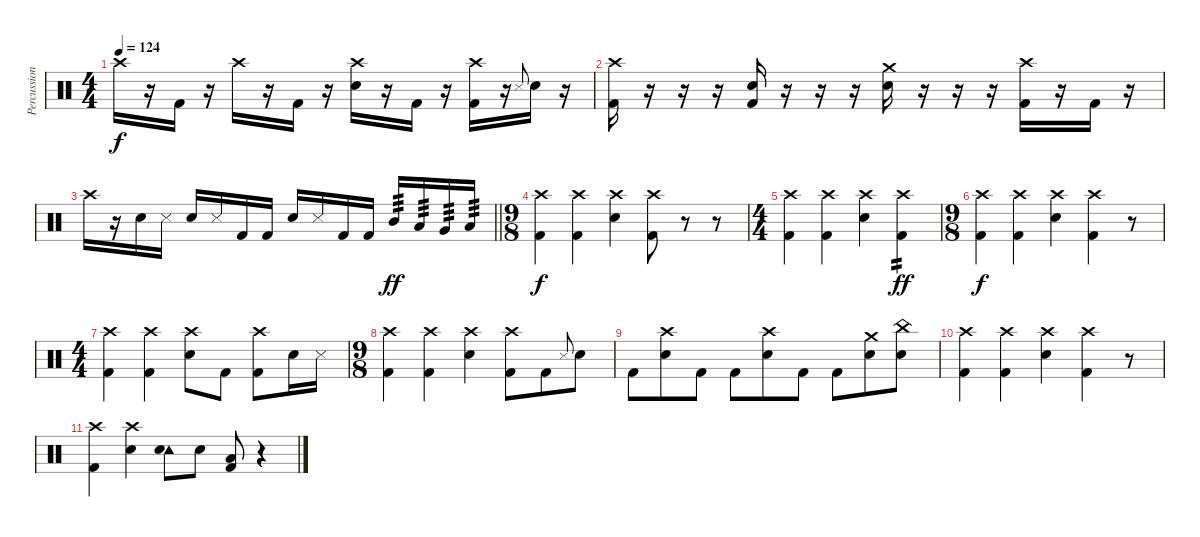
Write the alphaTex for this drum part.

\track ("Percussion" "Percussion") {instrument percussion}
\staff {score}
\articulation defaults
\ts (4 4)
\tempo 124
\clef neutral
\ks c "Crash high (hit)".16{dy f}
r.16 "Kick (hit) 2".16 r.16 "Crash high (hit)".16 r.16 "Kick (hit) 2".16 r.16 ("Crash high (hit)" "Snare (hit) 2").16 r.16 "Kick (hit) 2".16 r.16 ("Crash high (hit)" "Kick (hit) 2").16 r.16 "Metronome (hit)".8{gr onbeat} "Snare (hit) 2".16 r.16 |
("Crash high (hit)" "Kick (hit) 2").16 r.16 r.16 r.16 ("Snare (hit)" "Kick (hit) 2").16 r.16 r.16 r.16 ("Crash medium (hit)" "Snare (hit) 2").16 r.16 r.16 r.16 ("Crash high (hit)" "Kick (hit) 2").16 r.16 "Kick (hit) 2".16 r.16 |
\barLineRight lightlight "Crash high (hit)".16
r.16 "Snare (hit) 2".16 "Metronome (hit)".16 "Snare (hit) 2".16 "Metronome (hit)".16 "Kick (hit) 2".16 "Kick (hit) 2".16 "Snare (hit) 2".16 "Metronome (hit)".16 "Kick (hit) 2".16 "Kick (hit) 2".16 "Mid Tom (hit)".16{tp 3 dy ff} "Low Tom (hit)".16{tp 3} "Very Low Tom (hit)".16{tp 3} "Low Floor Tom (hit)".16{tp 3} |
\ts (9 8)
("Crash high (hit)" "Kick (hit) 2").4{dy f} ("Crash high (hit)" "Kick (hit) 2").4 ("Crash high (hit)" "Snare (hit) 2").4 ("Crash high (hit)" "Kick (hit) 2").8 r.8 r.8 |
\ts (4 4)
("Crash high (hit)" "Kick (hit) 2").4 ("Crash high (hit)" "Kick (hit) 2").4 ("Crash high (hit)" "Snare (hit) 2").4 ("Crash high (hit)" "Kick (hit) 2").4{tp 2 dy ff} |
\ts (9 8)
("Crash high (hit)" "Kick (hit) 2").4{dy f} ("Crash high (hit)" "Kick (hit) 2").4 ("Crash high (hit)" "Snare (hit) 2").4 ("Crash high (hit)" "Kick (hit) 2").4 r.8 |
\ts (4 4)
("Crash high (hit)" "Kick (hit) 2").4 ("Crash high (hit)" "Kick (hit) 2").4 ("Crash high (hit)" "Snare (hit) 2").8 "Kick (hit) 2".8 ("Crash high (hit)" "Kick (hit) 2").8 "Snare (hit) 2".16 "Metronome (hit)".16 |
\ts (9 8)
("Crash high (hit)" "Kick (hit) 2").4 ("Crash high (hit)" "Kick (hit) 2").4 ("Crash high (hit)" "Snare (hit) 2").4 ("Crash high (hit)" "Kick (hit) 2").8 "Kick (hit) 2".8 "Metronome (hit)".8{gr onbeat} "Snare (hit) 2".8 |
"Kick (hit) 2".8 ("Crash high (hit)" "Snare (hit) 2").8 "Kick (hit) 2".8 "Kick (hit) 2".8 ("Crash high (hit)" "Snare (hit) 2").8 "Kick (hit) 2".8 "Kick (hit) 2".8 ("Crash medium (hit)" "Snare (hit) 2").8 ("China (hit)" "Snare (hit) 2").8 |
("Crash high (hit)" "Kick (hit) 2").4 ("Crash high (hit)" "Kick (hit) 2").4 ("Crash high (hit)" "Snare (hit) 2").4 ("Crash high (hit)" "Kick (hit) 2").4 r.8 |
("Crash high (hit)" "Kick (hit) 2").4 ("Crash high (hit)" "Snare (hit) 2").4 ("Tambourine (hit)" "Snare (hit) 2").8 "Snare (hit) 2".8 ("Low Floor Tom (hit)" "Kick (hit) 2").8 r.4
